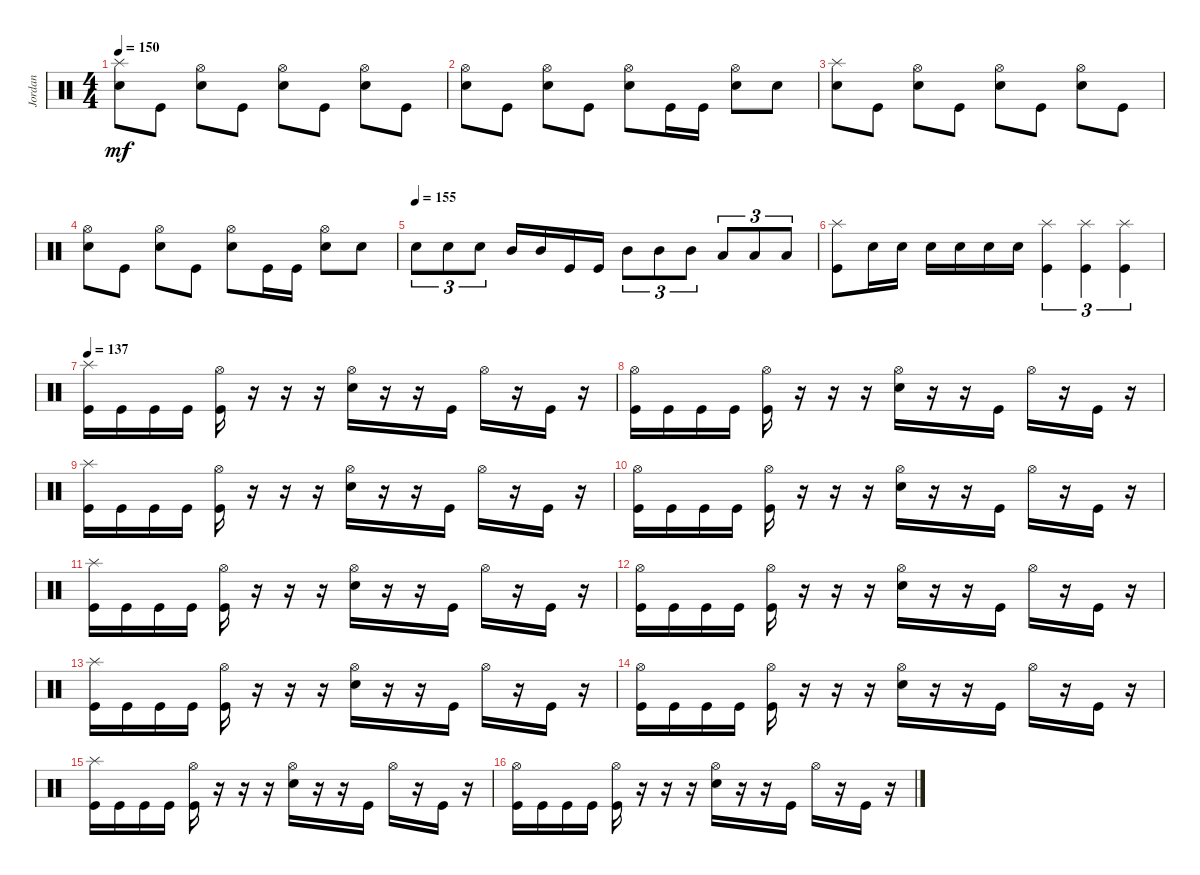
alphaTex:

\track ("Jordan" "Jordan") {instrument percussion}
\staff {score}
\articulation defaults
\ts (4 4)
\tempo 150
\clef neutral
\ks c
("Snare (hit) 2" "Splash (hit)").8{dy mf} "Kick (hit)".8 ("Snare (hit) 2" "Hi-Hat (open)").8 "Kick (hit)".8 ("Snare (hit) 2" "Hi-Hat (open)").8 "Kick (hit)".8 ("Snare (hit) 2" "Hi-Hat (open)").8 "Kick (hit)".8 |
("Snare (hit) 2" "Hi-Hat (open)").8 "Kick (hit)".8 ("Snare (hit) 2" "Hi-Hat (open)").8 "Kick (hit)".8 ("Snare (hit) 2" "Hi-Hat (open)").8 "Kick (hit)".16 "Kick (hit)".16 ("Snare (hit) 2" "Hi-Hat (open)").8 "Snare (hit) 2".8 |
("Snare (hit) 2" "Splash (hit)").8 "Kick (hit)".8 ("Snare (hit) 2" "Hi-Hat (open)").8 "Kick (hit)".8 ("Snare (hit) 2" "Hi-Hat (open)").8 "Kick (hit)".8 ("Snare (hit) 2" "Hi-Hat (open)").8 "Kick (hit)".8 |
("Snare (hit) 2" "Hi-Hat (open)").8 "Kick (hit)".8 ("Snare (hit) 2" "Hi-Hat (open)").8 "Kick (hit)".8 ("Snare (hit) 2" "Hi-Hat (open)").8 "Kick (hit)".16 "Kick (hit)".16 ("Snare (hit) 2" "Hi-Hat (open)").8 "Snare (hit) 2".8 |
\tempo (155)
"Snare (hit) 2".8{tu (3 2)} "Snare (hit) 2".8{tu (3 2)} "Snare (hit) 2".8{tu (3 2)} "Mid Tom (hit)".16 "Mid Tom (hit)".16 "Kick (hit)".16 "Kick (hit)".16 "Mid Tom (hit)".8{tu (3 2)} "Mid Tom (hit)".8{tu (3 2)} "Mid Tom (hit)".8{tu (3 2)} "Low Tom (hit)".8{tu (3 2)} "Low Tom (hit)".8{tu (3 2)} "Low Tom (hit)".8{tu (3 2)} |
("Kick (hit)" "Splash (hit)").8 "Snare (hit) 2".16 "Snare (hit) 2".16 "Snare (hit) 2".16 "Snare (hit) 2".16 "Snare (hit) 2".16 "Snare (hit) 2".16 ("Kick (hit)" "Splash (hit)").4{tu (3 2)} ("Kick (hit)" "Splash (hit)").4{tu (3 2)} ("Kick (hit)" "Splash (hit)").4{tu (3 2)} |
\tempo 137
("Kick (hit)" "Splash (hit)").16 "Kick (hit)".16 "Kick (hit)".16 "Kick (hit)".16 ("Kick (hit)" "Hi-Hat (open)").16 r.16 r.16 r.16 ("Snare (hit) 2" "Hi-Hat (open)").16 r.16 r.16 "Kick (hit)".16 "Hi-Hat (open)".16 r.16 "Kick (hit)".16 r.16 |
("Kick (hit)" "Hi-Hat (open)").16 "Kick (hit)".16 "Kick (hit)".16 "Kick (hit)".16 ("Kick (hit)" "Hi-Hat (open)").16 r.16 r.16 r.16 ("Snare (hit) 2" "Hi-Hat (open)").16 r.16 r.16 "Kick (hit)".16 "Hi-Hat (open)".16 r.16 "Kick (hit)".16 r.16 |
("Kick (hit)" "Splash (hit)").16 "Kick (hit)".16 "Kick (hit)".16 "Kick (hit)".16 ("Kick (hit)" "Hi-Hat (open)").16 r.16 r.16 r.16 ("Snare (hit) 2" "Hi-Hat (open)").16 r.16 r.16 "Kick (hit)".16 "Hi-Hat (open)".16 r.16 "Kick (hit)".16 r.16 |
("Kick (hit)" "Hi-Hat (open)").16 "Kick (hit)".16 "Kick (hit)".16 "Kick (hit)".16 ("Kick (hit)" "Hi-Hat (open)").16 r.16 r.16 r.16 ("Snare (hit) 2" "Hi-Hat (open)").16 r.16 r.16 "Kick (hit)".16 "Hi-Hat (open)".16 r.16 "Kick (hit)".16 r.16 |
("Kick (hit)" "Splash (hit)").16 "Kick (hit)".16 "Kick (hit)".16 "Kick (hit)".16 ("Kick (hit)" "Hi-Hat (open)").16 r.16 r.16 r.16 ("Snare (hit) 2" "Hi-Hat (open)").16 r.16 r.16 "Kick (hit)".16 "Hi-Hat (open)".16 r.16 "Kick (hit)".16 r.16 |
("Kick (hit)" "Hi-Hat (open)").16 "Kick (hit)".16 "Kick (hit)".16 "Kick (hit)".16 ("Kick (hit)" "Hi-Hat (open)").16 r.16 r.16 r.16 ("Snare (hit) 2" "Hi-Hat (open)").16 r.16 r.16 "Kick (hit)".16 "Hi-Hat (open)".16 r.16 "Kick (hit)".16 r.16 |
("Kick (hit)" "Splash (hit)").16 "Kick (hit)".16 "Kick (hit)".16 "Kick (hit)".16 ("Kick (hit)" "Hi-Hat (open)").16 r.16 r.16 r.16 ("Snare (hit) 2" "Hi-Hat (open)").16 r.16 r.16 "Kick (hit)".16 "Hi-Hat (open)".16 r.16 "Kick (hit)".16 r.16 |
("Kick (hit)" "Hi-Hat (open)").16 "Kick (hit)".16 "Kick (hit)".16 "Kick (hit)".16 ("Kick (hit)" "Hi-Hat (open)").16 r.16 r.16 r.16 ("Snare (hit) 2" "Hi-Hat (open)").16 r.16 r.16 "Kick (hit)".16 "Hi-Hat (open)".16 r.16 "Kick (hit)".16 r.16 |
("Kick (hit)" "Splash (hit)").16 "Kick (hit)".16 "Kick (hit)".16 "Kick (hit)".16 ("Kick (hit)" "Hi-Hat (open)").16 r.16 r.16 r.16 ("Snare (hit) 2" "Hi-Hat (open)").16 r.16 r.16 "Kick (hit)".16 "Hi-Hat (open)".16 r.16 "Kick (hit)".16 r.16 |
("Kick (hit)" "Hi-Hat (open)").16 "Kick (hit)".16 "Kick (hit)".16 "Kick (hit)".16 ("Kick (hit)" "Hi-Hat (open)").16 r.16 r.16 r.16 ("Snare (hit) 2" "Hi-Hat (open)").16 r.16 r.16 "Kick (hit)".16 "Hi-Hat (open)".16 r.16 "Kick (hit)".16 r.16
